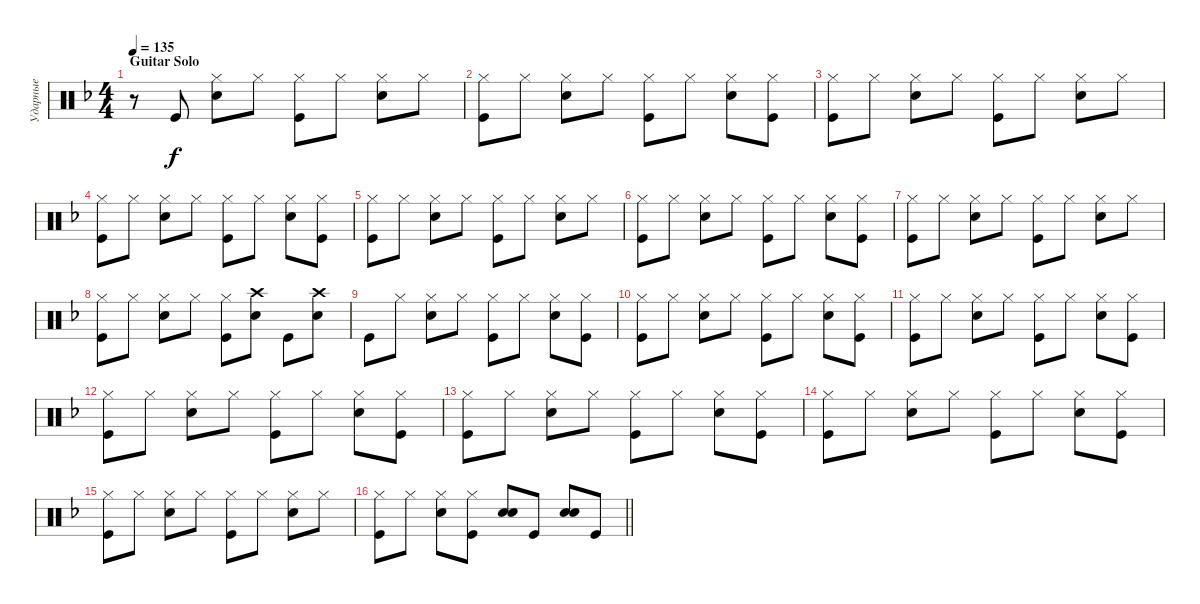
\track ("Ударные" "Ударные") {instrument percussion}
\staff {score}
\articulation defaults
\ts (4 4)
\section ("" "Guitar Solo")
\tempo 135
\clef neutral
\ks dminor
r.8{dy f} "Kick (hit)".8 ("Hi-Hat (closed)" "Snare (hit) 2").8 "Hi-Hat (closed)".8 ("Hi-Hat (closed)" "Kick (hit)").8 "Hi-Hat (closed)".8 ("Hi-Hat (closed)" "Snare (hit) 2").8 "Hi-Hat (closed)".8 |
("Hi-Hat (closed)" "Kick (hit)").8 "Hi-Hat (closed)".8 ("Hi-Hat (closed)" "Snare (hit) 2").8 "Hi-Hat (closed)".8 ("Hi-Hat (closed)" "Kick (hit)").8 "Hi-Hat (closed)".8 ("Hi-Hat (closed)" "Snare (hit) 2").8 ("Hi-Hat (closed)" "Kick (hit)").8 |
("Hi-Hat (closed)" "Kick (hit)").8 "Hi-Hat (closed)".8 ("Hi-Hat (closed)" "Snare (hit) 2").8 "Hi-Hat (closed)".8 ("Hi-Hat (closed)" "Kick (hit)").8 "Hi-Hat (closed)".8 ("Hi-Hat (closed)" "Snare (hit) 2").8 "Hi-Hat (closed)".8 |
("Hi-Hat (closed)" "Kick (hit)").8 "Hi-Hat (closed)".8 ("Hi-Hat (closed)" "Snare (hit) 2").8 "Hi-Hat (closed)".8 ("Hi-Hat (closed)" "Kick (hit)").8 "Hi-Hat (closed)".8 ("Hi-Hat (closed)" "Snare (hit) 2").8 ("Hi-Hat (closed)" "Kick (hit)").8 |
("Hi-Hat (closed)" "Kick (hit)").8 "Hi-Hat (closed)".8 ("Hi-Hat (closed)" "Snare (hit) 2").8 "Hi-Hat (closed)".8 ("Hi-Hat (closed)" "Kick (hit)").8 "Hi-Hat (closed)".8 ("Hi-Hat (closed)" "Snare (hit) 2").8 "Hi-Hat (closed)".8 |
("Hi-Hat (closed)" "Kick (hit)").8 "Hi-Hat (closed)".8 ("Hi-Hat (closed)" "Snare (hit) 2").8 "Hi-Hat (closed)".8 ("Hi-Hat (closed)" "Kick (hit)").8 "Hi-Hat (closed)".8 ("Hi-Hat (closed)" "Snare (hit) 2").8 ("Hi-Hat (closed)" "Kick (hit)").8 |
("Hi-Hat (closed)" "Kick (hit)").8 "Hi-Hat (closed)".8 ("Hi-Hat (closed)" "Snare (hit) 2").8 "Hi-Hat (closed)".8 ("Hi-Hat (closed)" "Kick (hit)").8 "Hi-Hat (closed)".8 ("Hi-Hat (closed)" "Snare (hit) 2").8 "Hi-Hat (closed)".8 |
("Hi-Hat (closed)" "Kick (hit)").8 "Hi-Hat (closed)".8 ("Hi-Hat (closed)" "Snare (hit) 2").8 "Hi-Hat (closed)".8 ("Hi-Hat (closed)" "Kick (hit)").8 ("Snare (hit) 2" "Crash high (hit)").8 "Kick (hit)".8 ("Snare (hit) 2" "Crash high (hit)").8 |
"Kick (hit)".8 "Hi-Hat (closed)".8 ("Hi-Hat (closed)" "Snare (hit) 2").8 "Hi-Hat (closed)".8 ("Hi-Hat (closed)" "Kick (hit)").8 "Hi-Hat (closed)".8 ("Hi-Hat (closed)" "Snare (hit) 2").8 ("Hi-Hat (closed)" "Kick (hit)").8 |
("Hi-Hat (closed)" "Kick (hit)").8 "Hi-Hat (closed)".8 ("Hi-Hat (closed)" "Snare (hit) 2").8 "Hi-Hat (closed)".8 ("Hi-Hat (closed)" "Kick (hit)").8 "Hi-Hat (closed)".8 ("Hi-Hat (closed)" "Snare (hit) 2").8 ("Hi-Hat (closed)" "Kick (hit)").8 |
("Hi-Hat (closed)" "Kick (hit)").8 "Hi-Hat (closed)".8 ("Hi-Hat (closed)" "Snare (hit) 2").8 "Hi-Hat (closed)".8 ("Hi-Hat (closed)" "Kick (hit)").8 "Hi-Hat (closed)".8 ("Hi-Hat (closed)" "Snare (hit) 2").8 ("Hi-Hat (closed)" "Kick (hit)").8 |
("Hi-Hat (closed)" "Kick (hit)").8 "Hi-Hat (closed)".8 ("Hi-Hat (closed)" "Snare (hit) 2").8 "Hi-Hat (closed)".8 ("Hi-Hat (closed)" "Kick (hit)").8 "Hi-Hat (closed)".8 ("Hi-Hat (closed)" "Snare (hit) 2").8 ("Hi-Hat (closed)" "Kick (hit)").8 |
("Hi-Hat (closed)" "Kick (hit)").8 "Hi-Hat (closed)".8 ("Hi-Hat (closed)" "Snare (hit) 2").8 "Hi-Hat (closed)".8 ("Hi-Hat (closed)" "Kick (hit)").8 "Hi-Hat (closed)".8 ("Hi-Hat (closed)" "Snare (hit) 2").8 ("Hi-Hat (closed)" "Kick (hit)").8 |
("Hi-Hat (closed)" "Kick (hit)").8 "Hi-Hat (closed)".8 ("Hi-Hat (closed)" "Snare (hit) 2").8 "Hi-Hat (closed)".8 ("Hi-Hat (closed)" "Kick (hit)").8 "Hi-Hat (closed)".8 ("Hi-Hat (closed)" "Snare (hit) 2").8 ("Hi-Hat (closed)" "Kick (hit)").8 |
("Hi-Hat (closed)" "Kick (hit)").8 "Hi-Hat (closed)".8 ("Hi-Hat (closed)" "Snare (hit) 2").8 "Hi-Hat (closed)".8 ("Hi-Hat (closed)" "Kick (hit)").8 "Hi-Hat (closed)".8 ("Hi-Hat (closed)" "Snare (hit) 2").8 "Hi-Hat (closed)".8 |
\barLineRight lightlight
("Hi-Hat (closed)" "Kick (hit)").8 "Hi-Hat (closed)".8 ("Hi-Hat (closed)" "Snare (hit) 2").8 ("Hi-Hat (closed)" "Kick (hit)").8 ("Snare (hit) 2" "Snare (hit) 2").8{bd 240} "Kick (hit)".8 ("Snare (hit) 2" "Snare (hit) 2").8{bd 240} "Kick (hit)".8
